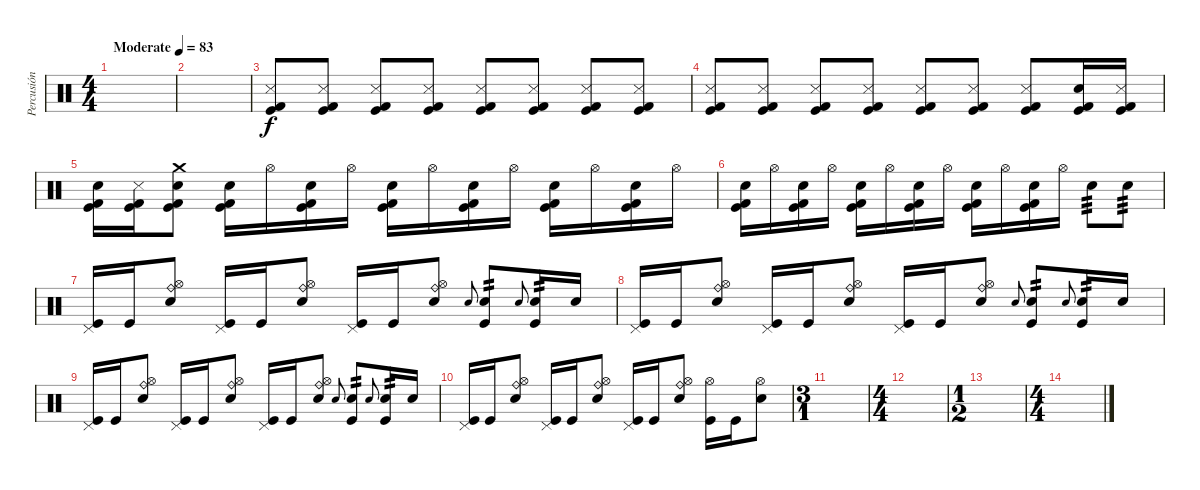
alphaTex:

\track ("Percusión" "Percusión") {instrument percussion}
\staff {score}
\articulation defaults
\ts (4 4)
\tempo (83 "Moderate")
\clef neutral
\ks c
|
|
("Snare (side stick) 3" "Kick (hit) 2" "Kick (hit)").8 ("Snare (side stick) 3" "Kick (hit) 2" "Kick (hit)").8 ("Snare (side stick) 3" "Kick (hit) 2" "Kick (hit)").8 ("Snare (side stick) 3" "Kick (hit) 2" "Kick (hit)").8 ("Snare (side stick) 3" "Kick (hit) 2" "Kick (hit)").8 ("Snare (side stick) 3" "Kick (hit) 2" "Kick (hit)").8 ("Snare (side stick) 3" "Kick (hit) 2" "Kick (hit)").8 ("Snare (side stick) 3" "Kick (hit) 2" "Kick (hit)").8 |
("Snare (side stick) 3" "Kick (hit) 2" "Kick (hit)").8 ("Snare (side stick) 3" "Kick (hit) 2" "Kick (hit)").8 ("Snare (side stick) 3" "Kick (hit) 2" "Kick (hit)").8 ("Snare (side stick) 3" "Kick (hit) 2" "Kick (hit)").8 ("Snare (side stick) 3" "Kick (hit) 2" "Kick (hit)").8 ("Snare (side stick) 3" "Kick (hit) 2" "Kick (hit)").8 ("Snare (side stick) 3" "Kick (hit) 2" "Kick (hit)").8 ("Snare (hit) 2" "Kick (hit) 2" "Kick (hit)").16 ("Snare (side stick) 3" "Kick (hit) 2" "Kick (hit)").16 |
("Snare (hit) 2" "Kick (hit) 2" "Kick (hit)").16 ("Snare (side stick) 3" "Kick (hit) 2" "Kick (hit)").16 ("Crash medium (hit)" "Snare (hit) 2" "Kick (hit) 2" "Kick (hit)").8 ("Snare (hit) 2" "Kick (hit) 2" "Kick (hit)").16 "Hi-Hat (open)".16 ("Snare (hit) 2" "Kick (hit) 2" "Kick (hit)").16 "Hi-Hat (open)".16 ("Snare (hit) 2" "Kick (hit) 2" "Kick (hit)").16 "Hi-Hat (open)".16 ("Snare (hit) 2" "Kick (hit) 2" "Kick (hit)").16 "Hi-Hat (open)".16 ("Snare (hit) 2" "Kick (hit) 2" "Kick (hit)").16 "Hi-Hat (open)".16 ("Snare (hit) 2" "Kick (hit) 2" "Kick (hit)").16 "Hi-Hat (open)".16 |
("Snare (hit) 2" "Kick (hit) 2" "Kick (hit)").16 "Hi-Hat (open)".16 ("Snare (hit) 2" "Kick (hit) 2" "Kick (hit)").16 "Hi-Hat (open)".16 ("Snare (hit) 2" "Kick (hit) 2" "Kick (hit)").16 "Hi-Hat (open)".16 ("Snare (hit) 2" "Kick (hit) 2" "Kick (hit)").16 "Hi-Hat (open)".16 ("Snare (hit) 2" "Kick (hit) 2" "Kick (hit)").16 "Hi-Hat (open)".16 ("Snare (hit) 2" "Kick (hit) 2" "Kick (hit)").16 "Hi-Hat (open)".16 "Snare (hit) 2".8{tp 3} "Snare (hit) 2".8{tp 3} |
("Pedal Hi-Hat (hit)" "Kick (hit)").16 "Kick (hit)".16 ("Ride (bell)" "Hi-Hat (open)" "Snare (hit) 2").8 ("Pedal Hi-Hat (hit)" "Kick (hit)").16 "Kick (hit)".16 ("Ride (bell)" "Hi-Hat (open)" "Snare (hit) 2").8 ("Pedal Hi-Hat (hit)" "Kick (hit)").16 "Kick (hit)".16 ("Ride (bell)" "Hi-Hat (open)" "Snare (hit) 2").8 "Snare (hit) 2".8{gr onbeat} ("Snare (hit) 2" "Kick (hit)").8{tp 2 beam Up} "Snare (hit) 2".8{gr onbeat} ("Snare (hit) 2" "Kick (hit)").16{tp 2 beam Up} "Snare (hit) 2".16 |
("Pedal Hi-Hat (hit)" "Kick (hit)").16 "Kick (hit)".16 ("Ride (bell)" "Hi-Hat (open)" "Snare (hit) 2").8 ("Pedal Hi-Hat (hit)" "Kick (hit)").16 "Kick (hit)".16 ("Ride (bell)" "Hi-Hat (open)" "Snare (hit) 2").8 ("Pedal Hi-Hat (hit)" "Kick (hit)").16 "Kick (hit)".16 ("Ride (bell)" "Hi-Hat (open)" "Snare (hit) 2").8 "Snare (hit) 2".8{gr onbeat} ("Snare (hit) 2" "Kick (hit)").8{tp 2 beam Up} "Snare (hit) 2".8{gr onbeat} ("Snare (hit) 2" "Kick (hit)").16{tp 2 beam Up} "Snare (hit) 2".16 |
("Pedal Hi-Hat (hit)" "Kick (hit)").16 "Kick (hit)".16 ("Ride (bell)" "Hi-Hat (open)" "Snare (hit) 2").8 ("Pedal Hi-Hat (hit)" "Kick (hit)").16 "Kick (hit)".16 ("Ride (bell)" "Hi-Hat (open)" "Snare (hit) 2").8 ("Pedal Hi-Hat (hit)" "Kick (hit)").16 "Kick (hit)".16 ("Ride (bell)" "Hi-Hat (open)" "Snare (hit) 2").8 "Snare (hit) 2".8{gr onbeat} ("Snare (hit) 2" "Kick (hit)").8{tp 2 beam Up} "Snare (hit) 2".8{gr onbeat} ("Snare (hit) 2" "Kick (hit)").16{tp 2 beam Up} "Snare (hit) 2".16 |
("Pedal Hi-Hat (hit)" "Kick (hit)").16 "Kick (hit)".16 ("Ride (bell)" "Hi-Hat (open)" "Snare (hit) 2").8 ("Pedal Hi-Hat (hit)" "Kick (hit)").16 "Kick (hit)".16 ("Ride (bell)" "Hi-Hat (open)" "Snare (hit) 2").8 ("Pedal Hi-Hat (hit)" "Kick (hit)").16 "Kick (hit)".16 ("Ride (bell)" "Hi-Hat (open)" "Snare (hit) 2").8 ("Hi-Hat (open)" "Kick (hit)").16 "Kick (hit)".16 ("Hi-Hat (open)" "Snare (hit) 2").8 |
\ts (3 1)
|
\ts (4 4)
|
\ts (1 2)
|
\ts (4 4)
